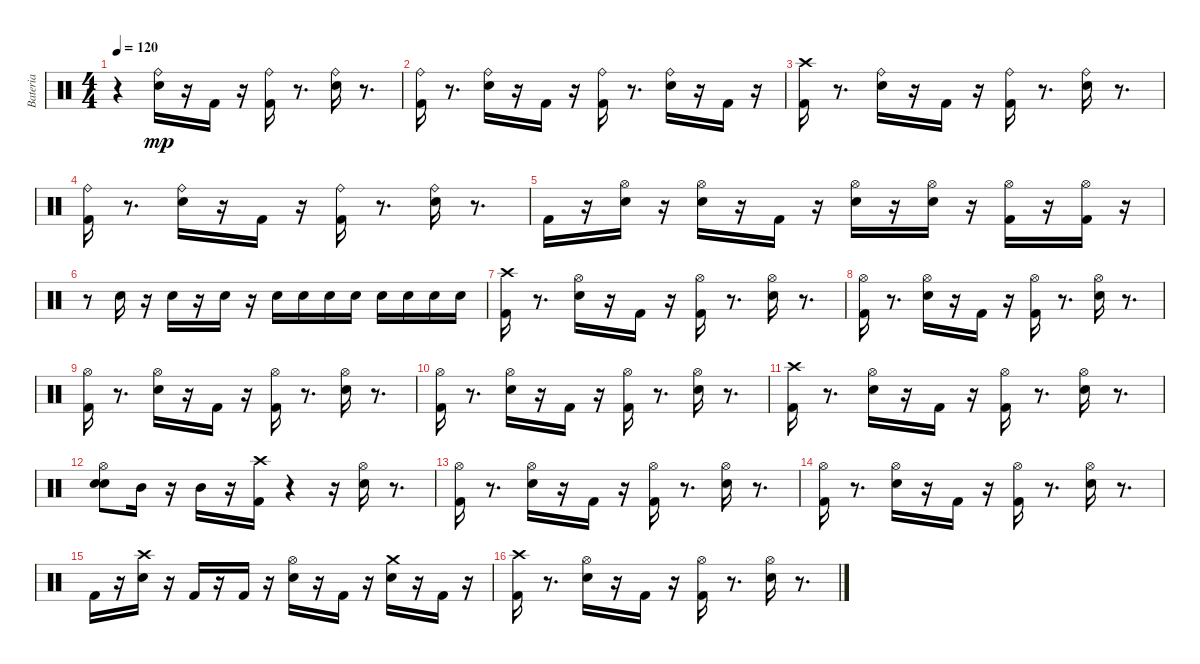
\track ("Bateria" "Bateria") {instrument percussion}
\staff {score}
\articulation defaults
\ts (4 4)
\tempo 120
\clef neutral
\ks c
r.4{dy mp} ("Ride (bell)" "Snare (hit) 2").16 r.16 "Kick (hit) 2".16 r.16 ("Ride (bell)" "Kick (hit) 2").16 r.8{d} ("Ride (bell)" "Snare (hit) 2").16 r.8{d} |
("Ride (bell)" "Kick (hit) 2").16 r.8{d} ("Ride (bell)" "Snare (hit) 2").16 r.16 "Kick (hit) 2".16 r.16 ("Ride (bell)" "Kick (hit) 2").16 r.8{d} ("Ride (bell)" "Snare (hit) 2").16 r.16 "Kick (hit) 2".16 r.16 |
("Kick (hit) 2" "Crash high (hit)").16 r.8{d} ("Ride (bell)" "Snare (hit) 2").16 r.16 "Kick (hit) 2".16 r.16 ("Ride (bell)" "Kick (hit) 2").16 r.8{d} ("Ride (bell)" "Snare (hit) 2").16 r.8{d} |
("Ride (bell)" "Kick (hit) 2").16 r.8{d} ("Ride (bell)" "Snare (hit) 2").16 r.16 "Kick (hit) 2".16 r.16 ("Ride (bell)" "Kick (hit) 2").16 r.8{d} ("Ride (bell)" "Snare (hit) 2").16 r.8{d} |
"Kick (hit) 2".16 r.16 ("Hi-Hat (open)" "Snare (hit) 2").16 r.16 ("Hi-Hat (open)" "Snare (hit) 2").16 r.16 "Kick (hit) 2".16 r.16 ("Hi-Hat (open)" "Snare (hit) 2").16 r.16 ("Hi-Hat (open)" "Snare (hit) 2").16 r.16 ("Hi-Hat (open)" "Kick (hit) 2").16 r.16 ("Hi-Hat (open)" "Kick (hit) 2").16 r.16 |
r.8 "Snare (hit) 2".16 r.16 "Snare (hit) 2".16 r.16 "Snare (hit) 2".16 r.16 "Snare (hit) 2".16 "Snare (hit) 2".16 "Snare (hit) 2".16 "Snare (hit) 2".16 "Snare (hit) 2".16 "Snare (hit) 2".16 "Snare (hit) 2".16 "Snare (hit) 2".16 |
("Kick (hit) 2" "Crash high (hit)").16 r.8{d} ("Snare (hit) 2" "Hi-Hat (open)").16 r.16 "Kick (hit) 2".16 r.16 ("Hi-Hat (open)" "Kick (hit) 2").16 r.8{d} ("Hi-Hat (open)" "Snare (hit) 2").16 r.8{d} |
("Hi-Hat (open)" "Kick (hit) 2").16 r.8{d} ("Hi-Hat (open)" "Snare (hit) 2").16 r.16 "Kick (hit) 2".16 r.16 ("Hi-Hat (open)" "Kick (hit) 2").16 r.8{d} ("Hi-Hat (open)" "Snare (hit) 2").16 r.8{d} |
("Hi-Hat (open)" "Kick (hit) 2").16 r.8{d} ("Snare (hit) 2" "Hi-Hat (open)").16 r.16 "Kick (hit) 2".16 r.16 ("Hi-Hat (open)" "Kick (hit) 2").16 r.8{d} ("Hi-Hat (open)" "Snare (hit) 2").16 r.8{d} |
("Hi-Hat (open)" "Kick (hit) 2").16 r.8{d} ("Hi-Hat (open)" "Snare (hit) 2").16 r.16 "Kick (hit) 2".16 r.16 ("Hi-Hat (open)" "Kick (hit) 2").16 r.8{d} ("Hi-Hat (open)" "Snare (hit) 2").16 r.8{d} |
("Kick (hit) 2" "Crash high (hit)").16 r.8{d} ("Snare (hit) 2" "Hi-Hat (open)").16 r.16 "Kick (hit) 2".16 r.16 ("Hi-Hat (open)" "Kick (hit) 2").16 r.8{d} ("Hi-Hat (open)" "Snare (hit) 2").16 r.8{d} |
("Hi-Hat (open)" "Snare (hit) 2" "Snare (hit) 2").8 "Mid Tom (hit)".16 r.16 "Mid Tom (hit)".16 r.16 ("Crash high (hit)" "Kick (hit) 2").16 r.4 r.16 ("Hi-Hat (open)" "Snare (hit) 2").16 r.8{d} |
("Hi-Hat (open)" "Kick (hit) 2").16 r.8{d} ("Hi-Hat (open)" "Snare (hit) 2").16 r.16 "Kick (hit) 2".16 r.16 ("Hi-Hat (open)" "Kick (hit) 2").16 r.8{d} ("Hi-Hat (open)" "Snare (hit) 2").16 r.8{d} |
("Hi-Hat (open)" "Kick (hit) 2").16 r.8{d} ("Hi-Hat (open)" "Snare (hit) 2").16 r.16 "Kick (hit) 2".16 r.16 ("Hi-Hat (open)" "Kick (hit) 2").16 r.8{d} ("Hi-Hat (open)" "Snare (hit) 2").16 r.8{d} |
"Kick (hit) 2".16 r.16 ("Snare (hit) 2" "Crash high (hit)").16 r.16 "Kick (hit) 2".16 r.16 "Kick (hit) 2".16 r.16 ("Hi-Hat (open)" "Snare (hit) 2").16 r.16 "Kick (hit) 2".16 r.16 ("Snare (hit) 2" "Crash medium (hit)").16 r.16 "Kick (hit) 2".16 r.16 |
("Kick (hit) 2" "Crash high (hit)").16 r.8{d} ("Snare (hit) 2" "Hi-Hat (open)").16 r.16 "Kick (hit) 2".16 r.16 ("Hi-Hat (open)" "Kick (hit) 2").16 r.8{d} ("Hi-Hat (open)" "Snare (hit) 2").16 r.8{d}
